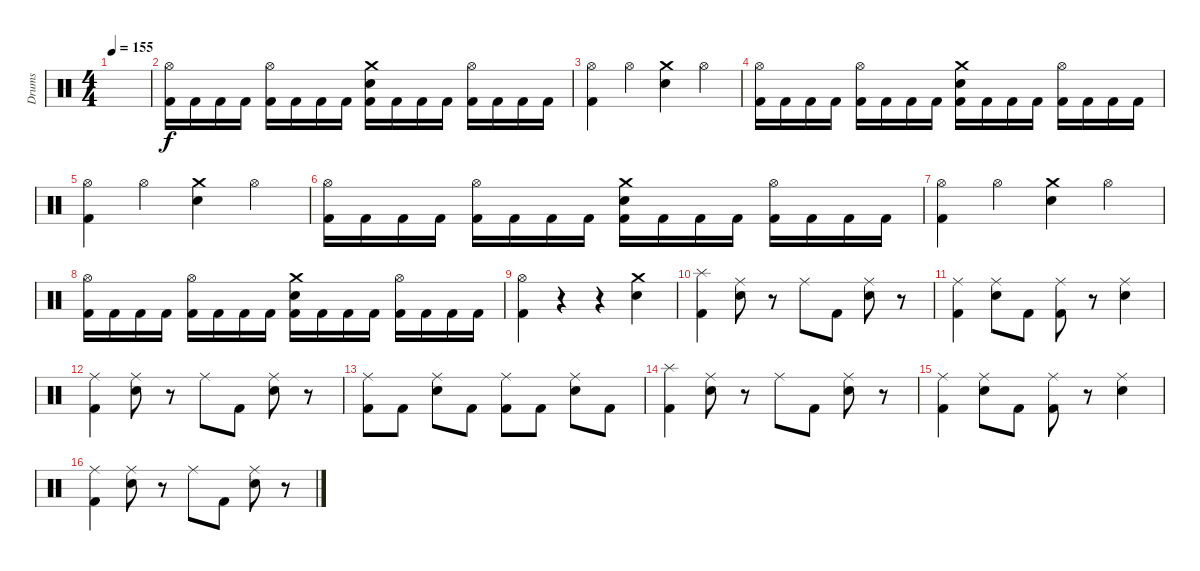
\track ("Drums" "Drums") {instrument percussion}
\staff {score}
\articulation defaults
\ts (4 4)
\tempo 155
\clef neutral
\ks c
|
("Hi-Hat (open)" "Kick (hit) 2").16 "Kick (hit) 2".16 "Kick (hit) 2".16 "Kick (hit) 2".16 ("Hi-Hat (open)" "Kick (hit) 2").16 "Kick (hit) 2".16 "Kick (hit) 2".16 "Kick (hit) 2".16 ("Snare (hit) 2" "Crash medium (hit)" "Kick (hit) 2").16 "Kick (hit) 2".16 "Kick (hit) 2".16 "Kick (hit) 2".16 ("Hi-Hat (open)" "Kick (hit) 2").16 "Kick (hit) 2".16 "Kick (hit) 2".16 "Kick (hit) 2".16 |
("Hi-Hat (open)" "Kick (hit) 2").4 "Hi-Hat (open)".4 ("Snare (hit) 2" "Crash medium (hit)").4 "Hi-Hat (open)".4 |
("Hi-Hat (open)" "Kick (hit) 2").16 "Kick (hit) 2".16 "Kick (hit) 2".16 "Kick (hit) 2".16 ("Hi-Hat (open)" "Kick (hit) 2").16 "Kick (hit) 2".16 "Kick (hit) 2".16 "Kick (hit) 2".16 ("Snare (hit) 2" "Crash medium (hit)" "Kick (hit) 2").16 "Kick (hit) 2".16 "Kick (hit) 2".16 "Kick (hit) 2".16 ("Hi-Hat (open)" "Kick (hit) 2").16 "Kick (hit) 2".16 "Kick (hit) 2".16 "Kick (hit) 2".16 |
("Hi-Hat (open)" "Kick (hit) 2").4 "Hi-Hat (open)".4 ("Snare (hit) 2" "Crash medium (hit)").4 "Hi-Hat (open)".4 |
("Hi-Hat (open)" "Kick (hit) 2").16 "Kick (hit) 2".16 "Kick (hit) 2".16 "Kick (hit) 2".16 ("Hi-Hat (open)" "Kick (hit) 2").16 "Kick (hit) 2".16 "Kick (hit) 2".16 "Kick (hit) 2".16 ("Snare (hit) 2" "Crash medium (hit)" "Kick (hit) 2").16 "Kick (hit) 2".16 "Kick (hit) 2".16 "Kick (hit) 2".16 ("Hi-Hat (open)" "Kick (hit) 2").16 "Kick (hit) 2".16 "Kick (hit) 2".16 "Kick (hit) 2".16 |
("Hi-Hat (open)" "Kick (hit) 2").4 "Hi-Hat (open)".4 ("Snare (hit) 2" "Crash medium (hit)").4 "Hi-Hat (open)".4 |
("Hi-Hat (open)" "Kick (hit) 2").16 "Kick (hit) 2".16 "Kick (hit) 2".16 "Kick (hit) 2".16 ("Hi-Hat (open)" "Kick (hit) 2").16 "Kick (hit) 2".16 "Kick (hit) 2".16 "Kick (hit) 2".16 ("Snare (hit) 2" "Crash medium (hit)" "Kick (hit) 2").16 "Kick (hit) 2".16 "Kick (hit) 2".16 "Kick (hit) 2".16 ("Hi-Hat (open)" "Kick (hit) 2").16 "Kick (hit) 2".16 "Kick (hit) 2".16 "Kick (hit) 2".16 |
("Hi-Hat (open)" "Kick (hit) 2").4 r.4 r.4 ("Snare (hit) 2" "Crash medium (hit)").4 |
("Splash (hit)" "Kick (hit) 2").4 ("Snare (hit) 2" "Ride (middle)").8 r.8 "Ride (middle)".8 "Kick (hit) 2".8 ("Snare (hit) 2" "Ride (middle)").8 r.8 |
("Ride (middle)" "Kick (hit) 2").4 ("Snare (hit) 2" "Ride (middle)").8 "Kick (hit) 2".8 ("Ride (middle)" "Kick (hit) 2").8 r.8 ("Snare (hit) 2" "Ride (middle)").4 |
("Ride (middle)" "Kick (hit) 2").4 ("Snare (hit) 2" "Ride (middle)").8 r.8 "Ride (middle)".8 "Kick (hit) 2".8 ("Snare (hit) 2" "Ride (middle)").8 r.8 |
("Ride (middle)" "Kick (hit) 2").8 "Kick (hit) 2".8 ("Snare (hit) 2" "Ride (middle)").8 "Kick (hit) 2".8 ("Ride (middle)" "Kick (hit) 2").8 "Kick (hit) 2".8 ("Snare (hit) 2" "Ride (middle)").8 "Kick (hit) 2".8 |
("Splash (hit)" "Kick (hit) 2").4 ("Snare (hit) 2" "Ride (middle)").8 r.8 "Ride (middle)".8 "Kick (hit) 2".8 ("Snare (hit) 2" "Ride (middle)").8 r.8 |
("Ride (middle)" "Kick (hit) 2").4 ("Snare (hit) 2" "Ride (middle)").8 "Kick (hit) 2".8 ("Ride (middle)" "Kick (hit) 2").8 r.8 ("Snare (hit) 2" "Ride (middle)").4 |
("Ride (middle)" "Kick (hit) 2").4 ("Snare (hit) 2" "Ride (middle)").8 r.8 "Ride (middle)".8 "Kick (hit) 2".8 ("Snare (hit) 2" "Ride (middle)").8 r.8
